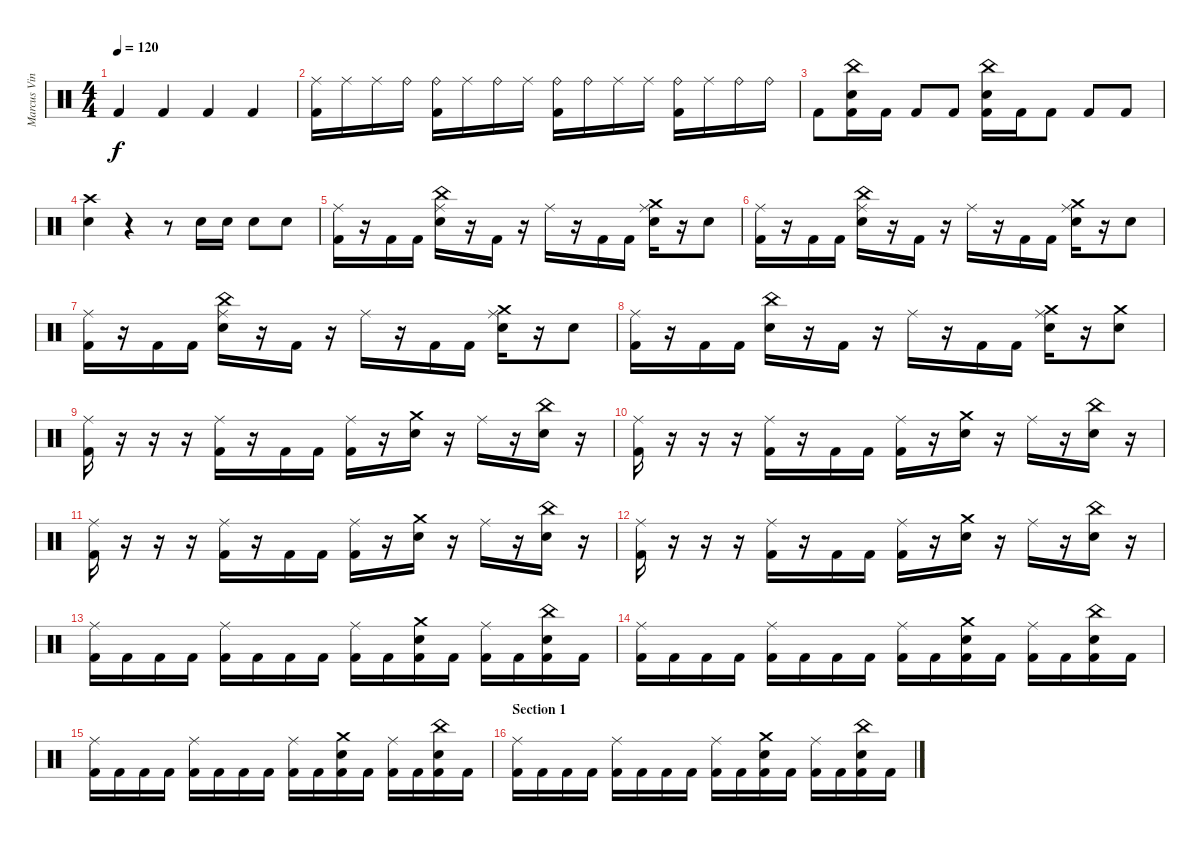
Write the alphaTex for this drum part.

\track ("Marcus Vinicius" "Marcus Vin") {instrument percussion}
\staff {score}
\articulation defaults
\ts (4 4)
\tempo 120
\clef neutral
\ks c "Kick (hit) 2".4{dy f} "Kick (hit) 2".4 "Kick (hit) 2".4 "Kick (hit) 2".4
|
("Kick (hit) 2" "Ride (middle)").16 "Ride (middle)".16 "Ride (middle)".16 "Ride (bell)".16 ("Kick (hit) 2" "Ride (bell)").16 "Ride (middle)".16 "Ride (bell)".16 "Ride (middle)".16 ("Kick (hit) 2" "Ride (bell)").16 "Ride (bell)".16 "Ride (middle)".16 "Ride (middle)".16 ("Kick (hit) 2" "Ride (bell)").16 "Ride (middle)".16 "Ride (bell)".16 "Ride (bell)".16 |
"Kick (hit) 2".8 ("Kick (hit) 2" "Metronome (bell)" "China (hit)").16 "Kick (hit) 2".16 "Kick (hit) 2".8 "Kick (hit) 2".8 ("Kick (hit) 2" "Metronome (bell)" "China (hit)").16 "Kick (hit) 2".16 "Kick (hit) 2".8 "Kick (hit) 2".8 "Kick (hit) 2".8 |
("Electric Snare (hit)" "Crash high (hit)").4 r.4 r.8 "Electric Snare (hit)".16 "Electric Snare (hit)".16 "Electric Snare (hit)".8 "Electric Snare (hit)".8 |
("Kick (hit) 2" "Ride (middle)").16 r.16 "Kick (hit) 2".16 "Kick (hit) 2".16 ("Electric Snare (hit)" "Ride (middle)" "China (hit)").16 r.16 "Kick (hit) 2".16 r.16 "Ride (middle)".16 r.16 "Kick (hit) 2".16 "Kick (hit) 2".16 ("Electric Snare (hit)" "Ride (middle)" "Crash medium (hit)").16 r.16 "Electric Snare (hit)".8 |
("Kick (hit) 2" "Ride (middle)").16 r.16 "Kick (hit) 2".16 "Kick (hit) 2".16 ("Electric Snare (hit)" "Ride (middle)" "China (hit)").16 r.16 "Kick (hit) 2".16 r.16 "Ride (middle)".16 r.16 "Kick (hit) 2".16 "Kick (hit) 2".16 ("Electric Snare (hit)" "Ride (middle)" "Crash medium (hit)").16 r.16 "Electric Snare (hit)".8 |
("Kick (hit) 2" "Ride (middle)").16 r.16 "Kick (hit) 2".16 "Kick (hit) 2".16 ("Electric Snare (hit)" "Ride (middle)" "China (hit)").16 r.16 "Kick (hit) 2".16 r.16 "Ride (middle)".16 r.16 "Kick (hit) 2".16 "Kick (hit) 2".16 ("Electric Snare (hit)" "Ride (middle)" "Crash medium (hit)").16 r.16 "Electric Snare (hit)".8 |
("Kick (hit) 2" "Ride (middle)").16 r.16 "Kick (hit) 2".16 "Kick (hit) 2".16 ("Electric Snare (hit)" "China (hit)").16 r.16 "Kick (hit) 2".16 r.16 "Ride (middle)".16 r.16 "Kick (hit) 2".16 "Kick (hit) 2".16 ("Electric Snare (hit)" "Ride (middle)" "Crash medium (hit)").16 r.16 ("Electric Snare (hit)" "Crash medium (hit)").8 |
("Kick (hit) 2" "Ride (middle)").16 r.16 r.16 r.16 ("Kick (hit) 2" "Ride (middle)").16 r.16 "Kick (hit) 2".16 "Kick (hit) 2".16 ("Kick (hit) 2" "Ride (middle)").16 r.16 ("Electric Snare (hit)" "Crash medium (hit)").16 r.16 "Ride (middle)".16 r.16 ("Electric Snare (hit)" "China (hit)").16 r.16 |
("Kick (hit) 2" "Ride (middle)").16 r.16 r.16 r.16 ("Kick (hit) 2" "Ride (middle)").16 r.16 "Kick (hit) 2".16 "Kick (hit) 2".16 ("Kick (hit) 2" "Ride (middle)").16 r.16 ("Electric Snare (hit)" "Crash medium (hit)").16 r.16 "Ride (middle)".16 r.16 ("Electric Snare (hit)" "China (hit)").16 r.16 |
("Kick (hit) 2" "Ride (middle)").16 r.16 r.16 r.16 ("Kick (hit) 2" "Ride (middle)").16 r.16 "Kick (hit) 2".16 "Kick (hit) 2".16 ("Kick (hit) 2" "Ride (middle)").16 r.16 ("Electric Snare (hit)" "Crash medium (hit)").16 r.16 "Ride (middle)".16 r.16 ("Electric Snare (hit)" "China (hit)").16 r.16 |
("Kick (hit) 2" "Ride (middle)").16 r.16 r.16 r.16 ("Kick (hit) 2" "Ride (middle)").16 r.16 "Kick (hit) 2".16 "Kick (hit) 2".16 ("Kick (hit) 2" "Ride (middle)").16 r.16 ("Electric Snare (hit)" "Crash medium (hit)").16 r.16 "Ride (middle)".16 r.16 ("Electric Snare (hit)" "China (hit)").16 r.16 |
("Kick (hit) 2" "Ride (middle)").16 "Kick (hit) 2".16 "Kick (hit) 2".16 "Kick (hit) 2".16 ("Kick (hit) 2" "Ride (middle)").16 "Kick (hit) 2".16 "Kick (hit) 2".16 "Kick (hit) 2".16 ("Kick (hit) 2" "Ride (middle)").16 "Kick (hit) 2".16 ("Electric Snare (hit)" "Crash medium (hit)" "Kick (hit) 2").16 "Kick (hit) 2".16 ("Kick (hit) 2" "Ride (middle)").16 "Kick (hit) 2".16 ("Electric Snare (hit)" "China (hit)" "Kick (hit) 2").16 "Kick (hit) 2".16 |
("Kick (hit) 2" "Ride (middle)").16 "Kick (hit) 2".16 "Kick (hit) 2".16 "Kick (hit) 2".16 ("Kick (hit) 2" "Ride (middle)").16 "Kick (hit) 2".16 "Kick (hit) 2".16 "Kick (hit) 2".16 ("Kick (hit) 2" "Ride (middle)").16 "Kick (hit) 2".16 ("Electric Snare (hit)" "Crash medium (hit)" "Kick (hit) 2").16 "Kick (hit) 2".16 ("Kick (hit) 2" "Ride (middle)").16 "Kick (hit) 2".16 ("Electric Snare (hit)" "China (hit)" "Kick (hit) 2").16 "Kick (hit) 2".16 |
("Kick (hit) 2" "Ride (middle)").16 "Kick (hit) 2".16 "Kick (hit) 2".16 "Kick (hit) 2".16 ("Kick (hit) 2" "Ride (middle)").16 "Kick (hit) 2".16 "Kick (hit) 2".16 "Kick (hit) 2".16 ("Kick (hit) 2" "Ride (middle)").16 "Kick (hit) 2".16 ("Electric Snare (hit)" "Crash medium (hit)" "Kick (hit) 2").16 "Kick (hit) 2".16 ("Kick (hit) 2" "Ride (middle)").16 "Kick (hit) 2".16 ("Electric Snare (hit)" "China (hit)" "Kick (hit) 2").16 "Kick (hit) 2".16 |
\section ("" "Section 1")
("Kick (hit) 2" "Ride (middle)").16 "Kick (hit) 2".16 "Kick (hit) 2".16 "Kick (hit) 2".16 ("Kick (hit) 2" "Ride (middle)").16 "Kick (hit) 2".16 "Kick (hit) 2".16 "Kick (hit) 2".16 ("Kick (hit) 2" "Ride (middle)").16 "Kick (hit) 2".16 ("Electric Snare (hit)" "Crash medium (hit)" "Kick (hit) 2").16 "Kick (hit) 2".16 ("Kick (hit) 2" "Ride (middle)").16 "Kick (hit) 2".16 ("Electric Snare (hit)" "China (hit)" "Kick (hit) 2").16 "Kick (hit) 2".16
